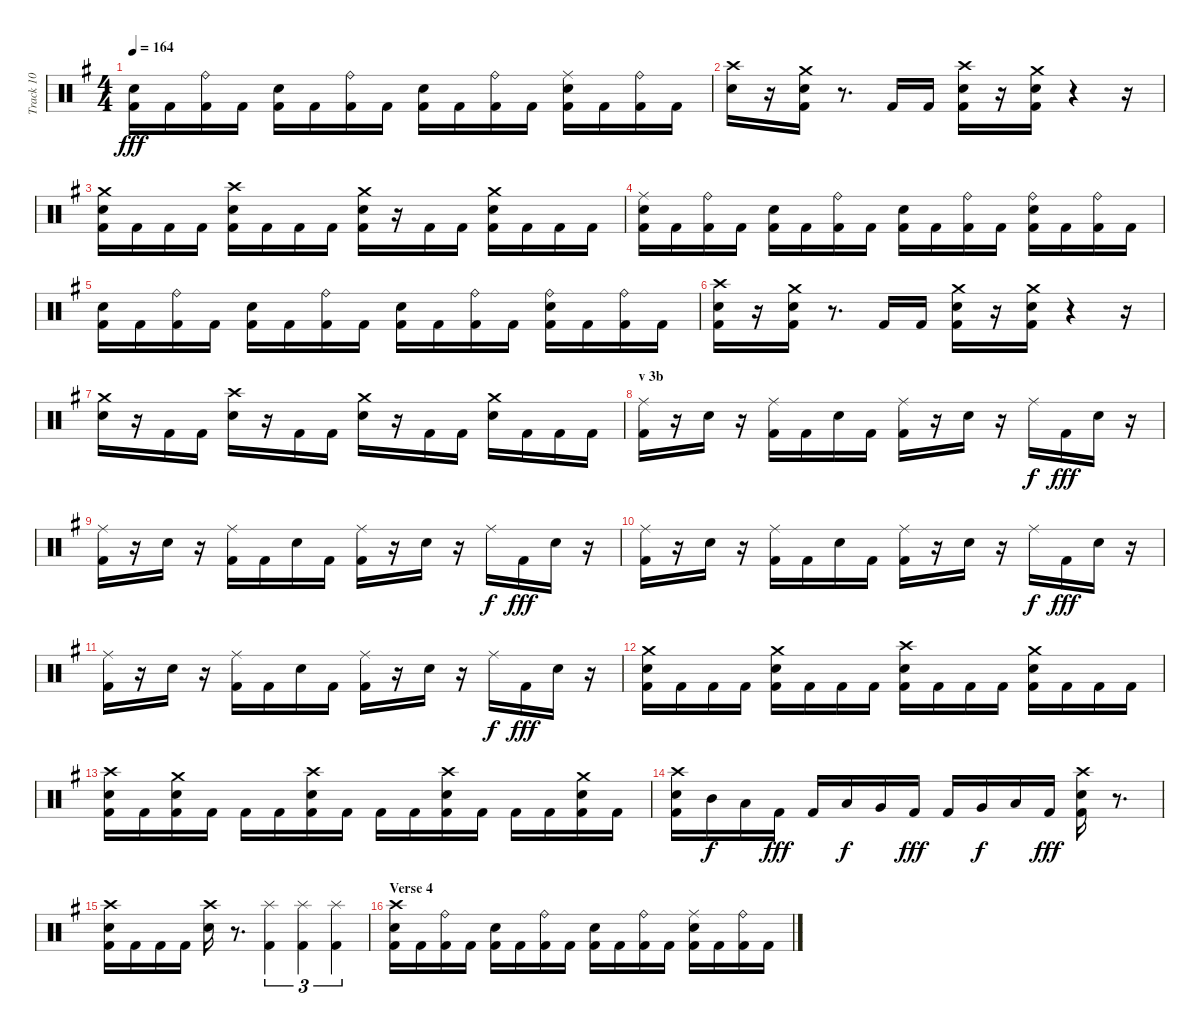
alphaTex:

\track ("Track 10" "Track 10") {instrument percussion}
\staff {score}
\articulation defaults
\ts (4 4)
\tempo 164
\clef neutral
\ks eminor
("Kick (hit) 2" "Electric Snare (hit)").16{dy fff} "Kick (hit) 2".16 ("Kick (hit) 2" "Ride (bell)").16 "Kick (hit) 2".16 ("Electric Snare (hit)" "Kick (hit) 2").16 "Kick (hit) 2".16 ("Kick (hit) 2" "Ride (bell)").16 "Kick (hit) 2".16 ("Kick (hit) 2" "Electric Snare (hit)").16 "Kick (hit) 2".16 ("Kick (hit) 2" "Ride (bell)").16 "Kick (hit) 2".16 ("Kick (hit) 2" "Electric Snare (hit)" "Ride (middle)").16 "Kick (hit) 2".16 ("Kick (hit) 2" "Ride (bell)").16 "Kick (hit) 2".16 |
("Electric Snare (hit)" "Crash high (hit)").16 r.16 ("Kick (hit) 2" "Electric Snare (hit)" "Crash medium (hit)").16 r.8{d} "Kick (hit) 2".16 "Kick (hit) 2".16 ("Kick (hit) 2" "Electric Snare (hit)" "Crash high (hit)").16 r.16 ("Electric Snare (hit)" "Kick (hit) 2" "Crash medium (hit)").16 r.4 r.16 |
("Electric Snare (hit)" "Kick (hit) 2" "Crash medium (hit)").16 "Kick (hit) 2".16 "Kick (hit) 2".16 "Kick (hit) 2".16 ("Kick (hit) 2" "Electric Snare (hit)" "Crash high (hit)").16 "Kick (hit) 2".16 "Kick (hit) 2".16 "Kick (hit) 2".16 ("Kick (hit) 2" "Electric Snare (hit)" "Crash medium (hit)").16 r.16 "Kick (hit) 2".16 "Kick (hit) 2".16 ("Kick (hit) 2" "Electric Snare (hit)" "Crash medium (hit)").16 "Kick (hit) 2".16 "Kick (hit) 2".16 "Kick (hit) 2".16 |
("Electric Snare (hit)" "Kick (hit) 2" "Ride (middle)").16 "Kick (hit) 2".16 ("Kick (hit) 2" "Ride (bell)").16 "Kick (hit) 2".16 ("Kick (hit) 2" "Electric Snare (hit)").16 "Kick (hit) 2".16 ("Kick (hit) 2" "Ride (bell)").16 "Kick (hit) 2".16 ("Electric Snare (hit)" "Kick (hit) 2").16 "Kick (hit) 2".16 ("Kick (hit) 2" "Ride (bell)").16 "Kick (hit) 2".16 ("Kick (hit) 2" "Electric Snare (hit)" "Ride (bell)").16 "Kick (hit) 2".16 ("Kick (hit) 2" "Ride (bell)").16 "Kick (hit) 2".16 |
("Kick (hit) 2" "Electric Snare (hit)").16 "Kick (hit) 2".16 ("Kick (hit) 2" "Ride (bell)").16 "Kick (hit) 2".16 ("Electric Snare (hit)" "Kick (hit) 2").16 "Kick (hit) 2".16 ("Kick (hit) 2" "Ride (bell)").16 "Kick (hit) 2".16 ("Electric Snare (hit)" "Kick (hit) 2").16 "Kick (hit) 2".16 ("Kick (hit) 2" "Ride (bell)").16 "Kick (hit) 2".16 ("Kick (hit) 2" "Electric Snare (hit)" "Ride (bell)").16 "Kick (hit) 2".16 ("Kick (hit) 2" "Ride (bell)").16 "Kick (hit) 2".16 |
("Electric Snare (hit)" "Kick (hit) 2" "Crash high (hit)").16 r.16 ("Electric Snare (hit)" "Kick (hit) 2" "Crash medium (hit)").16 r.8{d} "Kick (hit) 2".16 "Kick (hit) 2".16 ("Kick (hit) 2" "Electric Snare (hit)" "Crash medium (hit)").16 r.16 ("Kick (hit) 2" "Electric Snare (hit)" "Crash medium (hit)").16 r.4 r.16 |
("Electric Snare (hit)" "Crash medium (hit)").16 r.16 "Kick (hit) 2".16 "Kick (hit) 2".16 ("Electric Snare (hit)" "Crash high (hit)").16 r.16 "Kick (hit) 2".16 "Kick (hit) 2".16 ("Electric Snare (hit)" "Crash medium (hit)").16 r.16 "Kick (hit) 2".16 "Kick (hit) 2".16 ("Electric Snare (hit)" "Crash medium (hit)").16 "Kick (hit) 2".16 "Kick (hit) 2".16 "Kick (hit) 2".16 |
\section ("" "v 3b")
("Kick (hit) 2" "Ride (middle)").16 r.16 "Electric Snare (hit)".16 r.16 ("Kick (hit) 2" "Ride (middle)").16 "Kick (hit) 2".16 "Electric Snare (hit)".16 "Kick (hit) 2".16 ("Kick (hit) 2" "Ride (middle)").16 r.16 "Electric Snare (hit)".16 r.16 "Ride (middle)".16{dy f} "Kick (hit) 2".16{dy fff} "Electric Snare (hit)".16 r.16 |
("Kick (hit) 2" "Ride (middle)").16 r.16 "Electric Snare (hit)".16 r.16 ("Kick (hit) 2" "Ride (middle)").16 "Kick (hit) 2".16 "Electric Snare (hit)".16 "Kick (hit) 2".16 ("Kick (hit) 2" "Ride (middle)").16 r.16 "Electric Snare (hit)".16 r.16 "Ride (middle)".16{dy f} "Kick (hit) 2".16{dy fff} "Electric Snare (hit)".16 r.16 |
("Kick (hit) 2" "Ride (middle)").16 r.16 "Electric Snare (hit)".16 r.16 ("Kick (hit) 2" "Ride (middle)").16 "Kick (hit) 2".16 "Electric Snare (hit)".16 "Kick (hit) 2".16 ("Kick (hit) 2" "Ride (middle)").16 r.16 "Electric Snare (hit)".16 r.16 "Ride (middle)".16{dy f} "Kick (hit) 2".16{dy fff} "Electric Snare (hit)".16 r.16 |
("Kick (hit) 2" "Ride (middle)").16 r.16 "Electric Snare (hit)".16 r.16 ("Kick (hit) 2" "Ride (middle)").16 "Kick (hit) 2".16 "Electric Snare (hit)".16 "Kick (hit) 2".16 ("Kick (hit) 2" "Ride (middle)").16 r.16 "Electric Snare (hit)".16 r.16 "Ride (middle)".16{dy f} "Kick (hit) 2".16{dy fff} "Electric Snare (hit)".16 r.16 |
("Electric Snare (hit)" "Kick (hit) 2" "Crash medium (hit)").16 "Kick (hit) 2".16 "Kick (hit) 2".16 "Kick (hit) 2".16 ("Kick (hit) 2" "Electric Snare (hit)" "Crash medium (hit)").16 "Kick (hit) 2".16 "Kick (hit) 2".16 "Kick (hit) 2".16 ("Kick (hit) 2" "Electric Snare (hit)" "Crash high (hit)").16 "Kick (hit) 2".16 "Kick (hit) 2".16 "Kick (hit) 2".16 ("Electric Snare (hit)" "Kick (hit) 2" "Crash medium (hit)").16 "Kick (hit) 2".16 "Kick (hit) 2".16 "Kick (hit) 2".16 |
("Electric Snare (hit)" "Kick (hit) 2" "Crash high (hit)").16 "Kick (hit) 2".16 ("Electric Snare (hit)" "Kick (hit) 2" "Crash medium (hit)").16 "Kick (hit) 2".16 "Kick (hit) 2".16 "Kick (hit) 2".16 ("Electric Snare (hit)" "Kick (hit) 2" "Crash high (hit)").16 "Kick (hit) 2".16 "Kick (hit) 2".16 "Kick (hit) 2".16 ("Electric Snare (hit)" "Kick (hit) 2" "Crash high (hit)").16 "Kick (hit) 2".16 "Kick (hit) 2".16 "Kick (hit) 2".16 ("Electric Snare (hit)" "Kick (hit) 2" "Crash medium (hit)").16 "Kick (hit) 2".16 |
("Electric Snare (hit)" "Kick (hit) 2" "Crash high (hit)").16 "Mid Tom (hit)".16{dy f} "Low Tom (hit)".16 "Kick (hit) 2".16{dy fff} "Kick (hit) 2".16 "Low Tom (hit)".16{dy f} "Very Low Tom (hit)".16 "Kick (hit) 2".16{dy fff} "Kick (hit) 2".16 "Very Low Tom (hit)".16{dy f} "Low Floor Tom (hit)".16 "Kick (hit) 2".16{dy fff} ("Electric Snare (hit)" "Kick (hit) 2" "Crash high (hit)").16 r.8{d} |
("Electric Snare (hit)" "Kick (hit) 2" "Crash high (hit)").16 "Kick (hit) 2".16 "Kick (hit) 2".16 "Kick (hit) 2".16 ("Electric Snare (hit)" "Crash high (hit)").16 r.8{d} ("Kick (hit) 2" "Splash (hit)").4{tu (3 2)} ("Kick (hit) 2" "Splash (hit)").4{tu (3 2)} ("Kick (hit) 2" "Splash (hit)").4{tu (3 2)} |
\section ("" "Verse 4")
("Electric Snare (hit)" "Kick (hit) 2" "Crash high (hit)").16 "Kick (hit) 2".16 ("Kick (hit) 2" "Ride (bell)").16 "Kick (hit) 2".16 ("Electric Snare (hit)" "Kick (hit) 2").16 "Kick (hit) 2".16 ("Kick (hit) 2" "Ride (bell)").16 "Kick (hit) 2".16 ("Electric Snare (hit)" "Kick (hit) 2").16 "Kick (hit) 2".16 ("Kick (hit) 2" "Ride (bell)").16 "Kick (hit) 2".16 ("Kick (hit) 2" "Electric Snare (hit)" "Ride (middle)").16 "Kick (hit) 2".16 ("Kick (hit) 2" "Ride (bell)").16 "Kick (hit) 2".16
